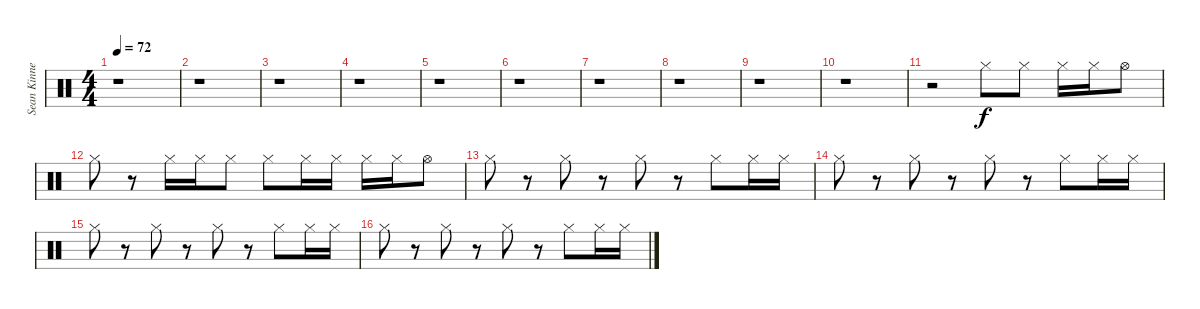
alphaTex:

\track ("Sean Kinney - Drums" "Sean Kinne") {instrument percussion}
\staff {score}
\articulation defaults
\ts (4 4)
\tempo 72
\clef neutral
\ks c
r.1{dy f} |
r.1 |
r.1 |
r.1 |
r.1 |
r.1 |
r.1 |
r.1 |
r.1 |
r.1 |
r.2 "Hi-Hat (closed)".8 "Hi-Hat (closed)".8 "Hi-Hat (closed)".16 "Hi-Hat (closed)".16 "Hi-Hat (open)".8 |
"Hi-Hat (closed)".8 r.8 "Hi-Hat (closed)".16 "Hi-Hat (closed)".16 "Hi-Hat (closed)".8 "Hi-Hat (closed)".8 "Hi-Hat (closed)".16 "Hi-Hat (closed)".16 "Hi-Hat (closed)".16 "Hi-Hat (closed)".16 "Hi-Hat (open)".8 |
"Hi-Hat (closed)".8 r.8 "Hi-Hat (closed)".8 r.8 "Hi-Hat (closed)".8 r.8 "Hi-Hat (closed)".8 "Hi-Hat (closed)".16 "Hi-Hat (closed)".16 |
"Hi-Hat (closed)".8 r.8 "Hi-Hat (closed)".8 r.8 "Hi-Hat (closed)".8 r.8 "Hi-Hat (closed)".8 "Hi-Hat (closed)".16 "Hi-Hat (closed)".16 |
"Hi-Hat (closed)".8 r.8 "Hi-Hat (closed)".8 r.8 "Hi-Hat (closed)".8 r.8 "Hi-Hat (closed)".8 "Hi-Hat (closed)".16 "Hi-Hat (closed)".16 |
"Hi-Hat (closed)".8 r.8 "Hi-Hat (closed)".8 r.8 "Hi-Hat (closed)".8 r.8 "Hi-Hat (closed)".8 "Hi-Hat (closed)".16 "Hi-Hat (closed)".16
